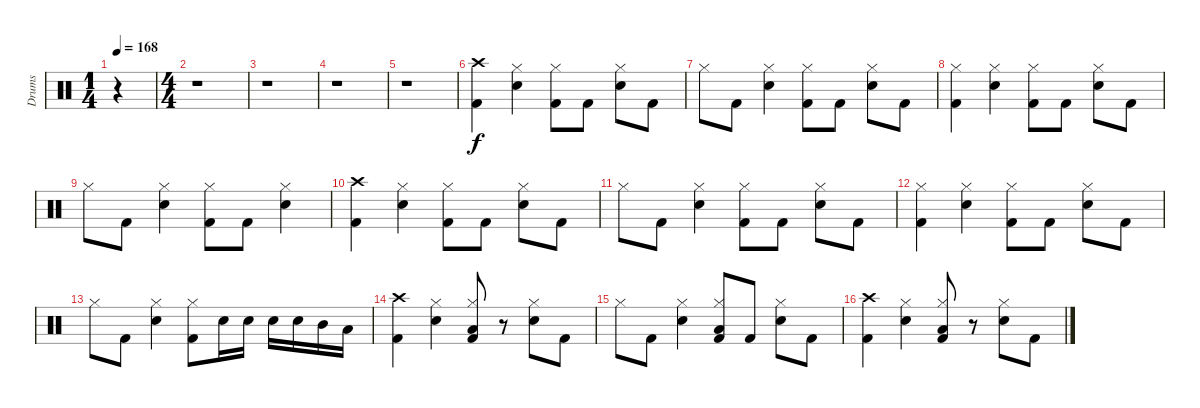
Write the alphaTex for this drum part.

\track ("Drums" "Drums") {instrument percussion}
\staff {score}
\articulation defaults
\ts (1 4)
\tempo 168
\clef neutral
\ks c
r.4{dy f} |
\ts (4 4)
r.1 |
r.1 |
r.1 |
r.1 |
("Crash high (hit)" "Kick (hit) 2").4 ("Hi-Hat (closed)" "Electric Snare (hit)").4 ("Hi-Hat (closed)" "Kick (hit) 2").8 "Kick (hit) 2".8 ("Hi-Hat (closed)" "Electric Snare (hit)").8 "Kick (hit) 2".8 |
"Hi-Hat (closed)".8 "Kick (hit) 2".8 ("Hi-Hat (closed)" "Electric Snare (hit)").4 ("Hi-Hat (closed)" "Kick (hit) 2").8 "Kick (hit) 2".8 ("Hi-Hat (closed)" "Electric Snare (hit)").8 "Kick (hit) 2".8 |
("Hi-Hat (closed)" "Kick (hit) 2").4 ("Hi-Hat (closed)" "Electric Snare (hit)").4 ("Hi-Hat (closed)" "Kick (hit) 2").8 "Kick (hit) 2".8 ("Hi-Hat (closed)" "Electric Snare (hit)").8 "Kick (hit) 2".8 |
"Hi-Hat (closed)".8 "Kick (hit) 2".8 ("Hi-Hat (closed)" "Electric Snare (hit)").4 ("Hi-Hat (closed)" "Kick (hit) 2").8 "Kick (hit) 2".8 ("Hi-Hat (closed)" "Electric Snare (hit)").4 |
("Crash high (hit)" "Kick (hit) 2").4 ("Hi-Hat (closed)" "Electric Snare (hit)").4 ("Hi-Hat (closed)" "Kick (hit) 2").8 "Kick (hit) 2".8 ("Hi-Hat (closed)" "Electric Snare (hit)").8 "Kick (hit) 2".8 |
"Hi-Hat (closed)".8 "Kick (hit) 2".8 ("Hi-Hat (closed)" "Electric Snare (hit)").4 ("Hi-Hat (closed)" "Kick (hit) 2").8 "Kick (hit) 2".8 ("Hi-Hat (closed)" "Electric Snare (hit)").8 "Kick (hit) 2".8 |
("Hi-Hat (closed)" "Kick (hit) 2").4 ("Hi-Hat (closed)" "Electric Snare (hit)").4 ("Hi-Hat (closed)" "Kick (hit) 2").8 "Kick (hit) 2".8 ("Hi-Hat (closed)" "Electric Snare (hit)").8 "Kick (hit) 2".8 |
"Hi-Hat (closed)".8 "Kick (hit) 2".8 ("Hi-Hat (closed)" "Electric Snare (hit)").4 ("Hi-Hat (closed)" "Kick (hit) 2").8 "Electric Snare (hit)".16 "Electric Snare (hit)".16 "Electric Snare (hit)".16 "Electric Snare (hit)".16 "Mid Tom (hit)".16 "Low Tom (hit)".16 |
("Crash high (hit)" "Kick (hit) 2").4 ("Hi-Hat (closed)" "Electric Snare (hit)").4 ("Hi-Hat (closed)" "Low Tom (hit)" "Kick (hit) 2").8 r.8 ("Hi-Hat (closed)" "Electric Snare (hit)").8 "Kick (hit) 2".8 |
"Hi-Hat (closed)".8 "Kick (hit) 2".8 ("Hi-Hat (closed)" "Electric Snare (hit)").4 ("Hi-Hat (closed)" "Low Tom (hit)" "Kick (hit) 2").8 "Kick (hit) 2".8 ("Hi-Hat (closed)" "Electric Snare (hit)").8 "Kick (hit) 2".8 |
("Crash high (hit)" "Kick (hit) 2").4 ("Hi-Hat (closed)" "Electric Snare (hit)").4 ("Hi-Hat (closed)" "Low Tom (hit)" "Kick (hit) 2").8 r.8 ("Hi-Hat (closed)" "Electric Snare (hit)").8 "Kick (hit) 2".8
